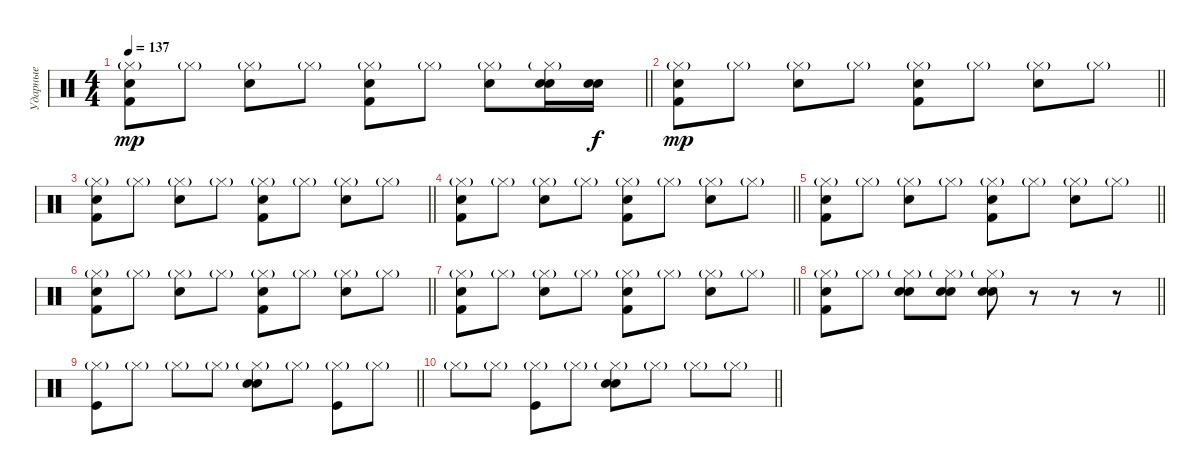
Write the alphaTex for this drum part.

\track ("Ударные" "Ударные") {instrument percussion}
\staff {score}
\articulation defaults
\ts (4 4)
\tempo 137
\clef neutral
\barLineRight lightlight
\ks c
("Kick (hit) 2" "Electric Snare (hit)" "Hi-Hat (closed)"{g}).8{dy mp} "Hi-Hat (closed)"{g}.8 ("Snare (hit) 2" "Hi-Hat (closed)"{g}).8 "Hi-Hat (closed)"{g}.8 ("Kick (hit) 2" "Electric Snare (hit)" "Hi-Hat (closed)"{g}).8 "Hi-Hat (closed)"{g}.8 ("Snare (hit) 2" "Hi-Hat (closed)"{g}).8 ("Snare (hit) 2" "Electric Snare (hit)" "Hi-Hat (closed)"{g}).16 ("Snare (hit) 2" "Electric Snare (hit)").16{dy f} |
\barLineRight lightlight
("Kick (hit) 2" "Electric Snare (hit)" "Hi-Hat (closed)"{g}).8{dy mp} "Hi-Hat (closed)"{g}.8 ("Snare (hit) 2" "Hi-Hat (closed)"{g}).8 "Hi-Hat (closed)"{g}.8 ("Kick (hit) 2" "Electric Snare (hit)" "Hi-Hat (closed)"{g}).8 "Hi-Hat (closed)"{g}.8 ("Snare (hit) 2" "Hi-Hat (closed)"{g}).8 "Hi-Hat (closed)"{g}.8 |
\barLineRight lightlight
("Kick (hit) 2" "Electric Snare (hit)" "Hi-Hat (closed)"{g}).8 "Hi-Hat (closed)"{g}.8 ("Snare (hit) 2" "Hi-Hat (closed)"{g}).8 "Hi-Hat (closed)"{g}.8 ("Kick (hit) 2" "Electric Snare (hit)" "Hi-Hat (closed)"{g}).8 "Hi-Hat (closed)"{g}.8 ("Snare (hit) 2" "Hi-Hat (closed)"{g}).8 "Hi-Hat (closed)"{g}.8 |
\barLineRight lightlight
("Kick (hit) 2" "Electric Snare (hit)" "Hi-Hat (closed)"{g}).8 "Hi-Hat (closed)"{g}.8 ("Snare (hit) 2" "Hi-Hat (closed)"{g}).8 "Hi-Hat (closed)"{g}.8 ("Kick (hit) 2" "Electric Snare (hit)" "Hi-Hat (closed)"{g}).8 "Hi-Hat (closed)"{g}.8 ("Snare (hit) 2" "Hi-Hat (closed)"{g}).8 "Hi-Hat (closed)"{g}.8 |
\barLineRight lightlight
("Kick (hit) 2" "Electric Snare (hit)" "Hi-Hat (closed)"{g}).8 "Hi-Hat (closed)"{g}.8 ("Snare (hit) 2" "Hi-Hat (closed)"{g}).8 "Hi-Hat (closed)"{g}.8 ("Kick (hit) 2" "Electric Snare (hit)" "Hi-Hat (closed)"{g}).8 "Hi-Hat (closed)"{g}.8 ("Snare (hit) 2" "Hi-Hat (closed)"{g}).8 "Hi-Hat (closed)"{g}.8 |
\barLineRight lightlight
("Kick (hit) 2" "Electric Snare (hit)" "Hi-Hat (closed)"{g}).8 "Hi-Hat (closed)"{g}.8 ("Snare (hit) 2" "Hi-Hat (closed)"{g}).8 "Hi-Hat (closed)"{g}.8 ("Kick (hit) 2" "Electric Snare (hit)" "Hi-Hat (closed)"{g}).8 "Hi-Hat (closed)"{g}.8 ("Snare (hit) 2" "Hi-Hat (closed)"{g}).8 "Hi-Hat (closed)"{g}.8 |
\barLineRight lightlight
("Kick (hit) 2" "Electric Snare (hit)" "Hi-Hat (closed)"{g}).8 "Hi-Hat (closed)"{g}.8 ("Snare (hit) 2" "Hi-Hat (closed)"{g}).8 "Hi-Hat (closed)"{g}.8 ("Kick (hit) 2" "Electric Snare (hit)" "Hi-Hat (closed)"{g}).8 "Hi-Hat (closed)"{g}.8 ("Snare (hit) 2" "Hi-Hat (closed)"{g}).8 "Hi-Hat (closed)"{g}.8 |
\barLineRight lightlight
("Kick (hit) 2" "Electric Snare (hit)" "Hi-Hat (closed)"{g}).8 "Hi-Hat (closed)"{g}.8 ("Snare (hit) 2" "Electric Snare (hit)" "Hi-Hat (closed)"{g}).8 ("Snare (hit) 2" "Electric Snare (hit)" "Hi-Hat (closed)"{g}).8 ("Snare (hit) 2" "Electric Snare (hit)" "Hi-Hat (closed)"{g}).8 r.8 r.8 r.8 |
\barLineRight lightlight
("Hi-Hat (closed)"{g} "Kick (hit)").8 "Hi-Hat (closed)"{g}.8 "Hi-Hat (closed)"{g}.8 "Hi-Hat (closed)"{g}.8 ("Hi-Hat (closed)"{g} "Hand Clap (hit)" "Electric Snare (hit)").8 "Hi-Hat (closed)"{g}.8 ("Hi-Hat (closed)"{g} "Kick (hit)").8 "Hi-Hat (closed)"{g}.8 |
\barLineRight lightlight "Hi-Hat (closed)"{g}.8 "Hi-Hat (closed)"{g}.8
("Hi-Hat (closed)"{g} "Kick (hit)").8 "Hi-Hat (closed)"{g}.8 ("Hi-Hat (closed)"{g} "Hand Clap (hit)" "Electric Snare (hit)").8 "Hi-Hat (closed)"{g}.8 "Hi-Hat (closed)"{g}.8 "Hi-Hat (closed)"{g}.8
